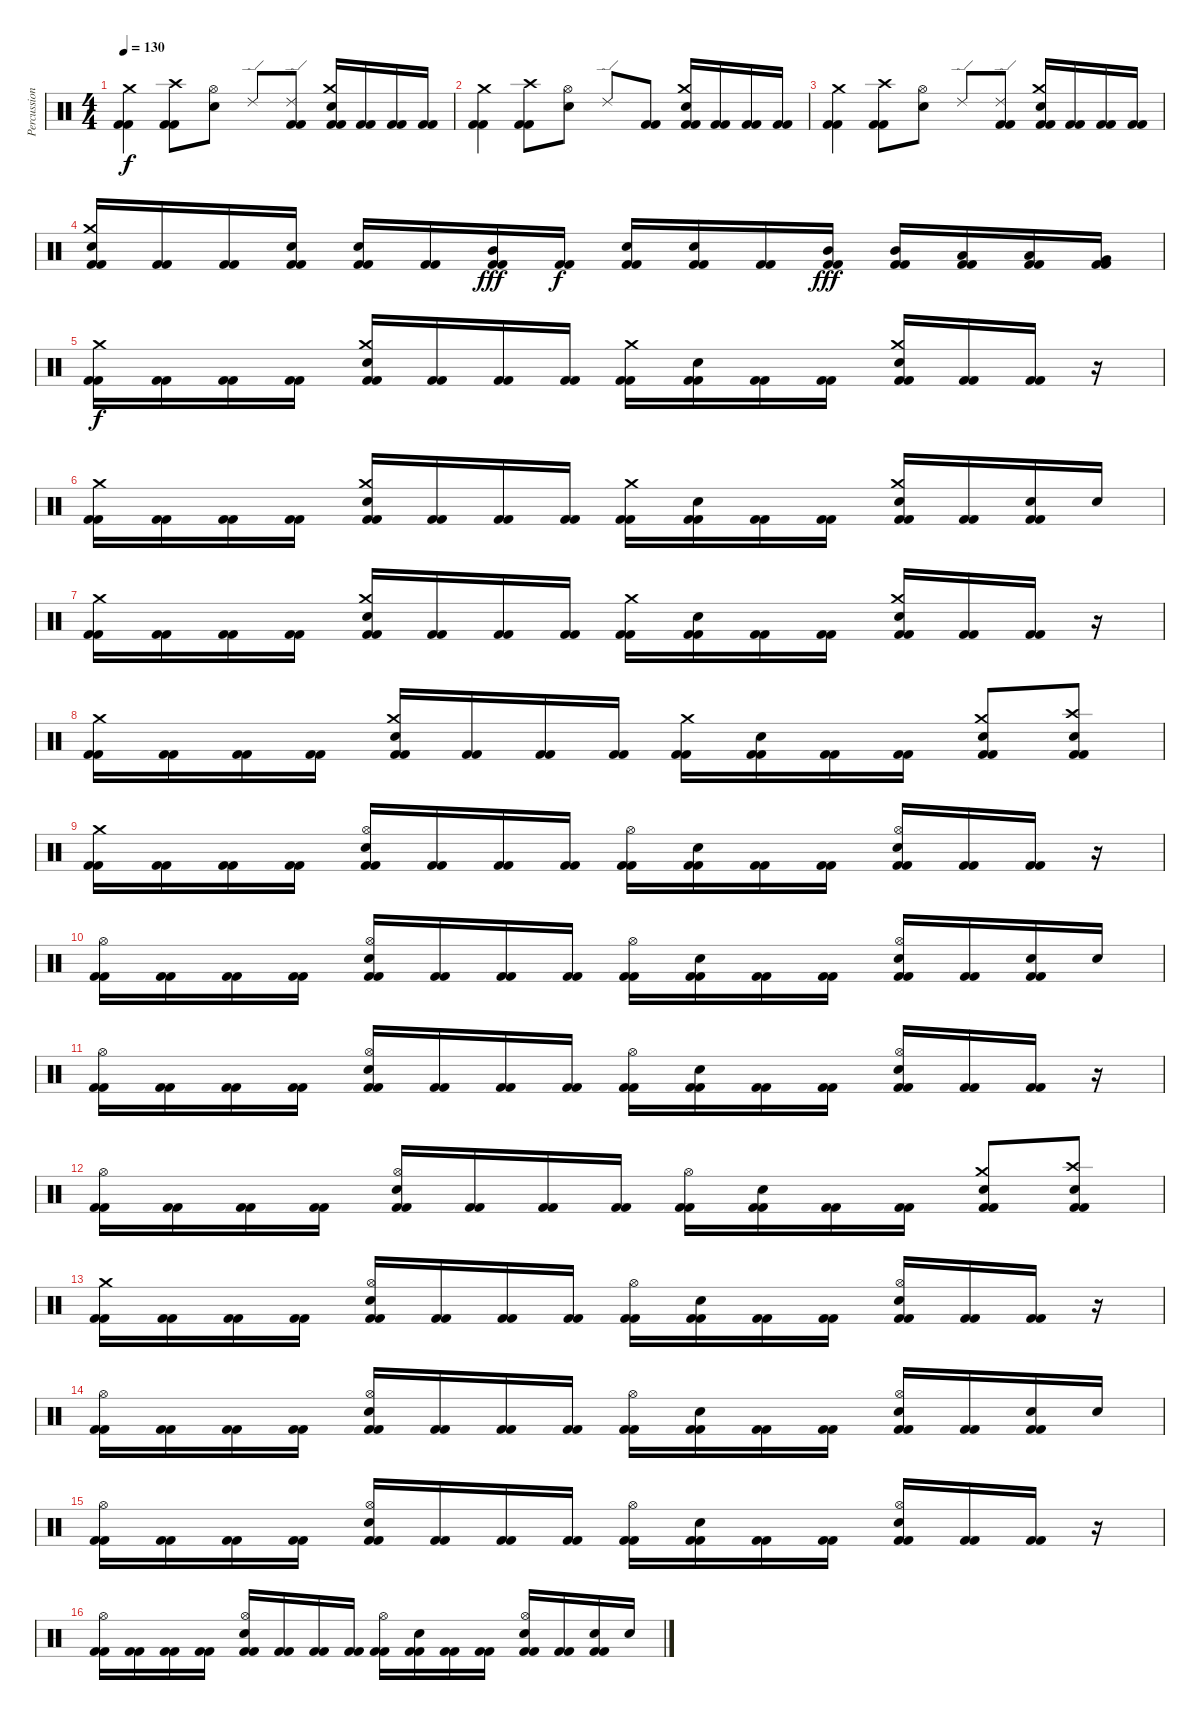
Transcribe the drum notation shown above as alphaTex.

\track ("Percussion" "Percussion") {instrument percussion}
\staff {score}
\articulation defaults
\ts (4 4)
\tempo 130
\clef neutral
\ks c
("Kick (hit) 2" "Kick (hit) 2" "Crash medium (hit)").4{dy f} ("Kick (hit) 2" "Kick (hit) 2" "Crash high (hit)").8 ("Hi-Hat (open)" "Electric Snare (hit)").8 "Ride (edge) 2".8 ("Kick (hit) 2" "Kick (hit) 2" "Ride (edge) 2").8 ("Kick (hit) 2" "Kick (hit) 2" "Electric Snare (hit)" "Crash medium (hit)").16 ("Kick (hit) 2" "Kick (hit) 2").16 ("Kick (hit) 2" "Kick (hit) 2").16 ("Kick (hit) 2" "Kick (hit) 2").16 |
("Kick (hit) 2" "Kick (hit) 2" "Crash medium (hit)").4 ("Kick (hit) 2" "Kick (hit) 2" "Crash high (hit)").8 ("Hi-Hat (open)" "Electric Snare (hit)").8 "Ride (edge) 2".8 ("Kick (hit) 2" "Kick (hit) 2").8 ("Kick (hit) 2" "Kick (hit) 2" "Electric Snare (hit)" "Crash medium (hit)").16 ("Kick (hit) 2" "Kick (hit) 2").16 ("Kick (hit) 2" "Kick (hit) 2").16 ("Kick (hit) 2" "Kick (hit) 2").16 |
("Kick (hit) 2" "Kick (hit) 2" "Crash medium (hit)").4 ("Kick (hit) 2" "Kick (hit) 2" "Crash high (hit)").8 ("Hi-Hat (open)" "Electric Snare (hit)").8 "Ride (edge) 2".8 ("Kick (hit) 2" "Kick (hit) 2" "Ride (edge) 2").8 ("Kick (hit) 2" "Kick (hit) 2" "Electric Snare (hit)" "Crash medium (hit)").16 ("Kick (hit) 2" "Kick (hit) 2").16 ("Kick (hit) 2" "Kick (hit) 2").16 ("Kick (hit) 2" "Kick (hit) 2").16 |
("Kick (hit) 2" "Kick (hit) 2" "Electric Snare (hit)" "Crash medium (hit)").16 ("Kick (hit) 2" "Kick (hit) 2").16 ("Kick (hit) 2" "Kick (hit) 2").16 ("Kick (hit) 2" "Kick (hit) 2" "Electric Snare (hit)").16 ("Kick (hit) 2" "Kick (hit) 2" "Electric Snare (hit)").16 ("Kick (hit) 2" "Kick (hit) 2").16 ("Kick (hit) 2" "Kick (hit) 2" "Mid Tom (hit)").16{dy fff} ("Kick (hit) 2" "Kick (hit) 2").16{dy f} ("Kick (hit) 2" "Kick (hit) 2" "Electric Snare (hit)").16 ("Kick (hit) 2" "Kick (hit) 2" "Electric Snare (hit)").16 ("Kick (hit) 2" "Kick (hit) 2").16 ("Kick (hit) 2" "Kick (hit) 2" "Mid Tom (hit)").16{dy fff} ("Kick (hit) 2" "Kick (hit) 2" "Mid Tom (hit)").16 ("Kick (hit) 2" "Kick (hit) 2" "Low Tom (hit)").16 ("Kick (hit) 2" "Kick (hit) 2" "Low Tom (hit)").16 ("Kick (hit) 2" "Kick (hit) 2" "Very Low Tom (hit)").16 |
("Kick (hit) 2" "Kick (hit) 2" "Crash medium (hit)").16{dy f} ("Kick (hit) 2" "Kick (hit) 2").16 ("Kick (hit) 2" "Kick (hit) 2").16 ("Kick (hit) 2" "Kick (hit) 2").16 ("Kick (hit) 2" "Kick (hit) 2" "Crash medium (hit)" "Electric Snare (hit)").16 ("Kick (hit) 2" "Kick (hit) 2").16 ("Kick (hit) 2" "Kick (hit) 2").16 ("Kick (hit) 2" "Kick (hit) 2").16 ("Kick (hit) 2" "Kick (hit) 2" "Crash medium (hit)").16 ("Kick (hit) 2" "Kick (hit) 2" "Electric Snare (hit)").16 ("Kick (hit) 2" "Kick (hit) 2").16 ("Kick (hit) 2" "Kick (hit) 2").16 ("Kick (hit) 2" "Kick (hit) 2" "Crash medium (hit)" "Electric Snare (hit)").16 ("Kick (hit) 2" "Kick (hit) 2").16 ("Kick (hit) 2" "Kick (hit) 2").16 r.16 |
("Kick (hit) 2" "Kick (hit) 2" "Crash medium (hit)").16 ("Kick (hit) 2" "Kick (hit) 2").16 ("Kick (hit) 2" "Kick (hit) 2").16 ("Kick (hit) 2" "Kick (hit) 2").16 ("Kick (hit) 2" "Kick (hit) 2" "Crash medium (hit)" "Electric Snare (hit)").16 ("Kick (hit) 2" "Kick (hit) 2").16 ("Kick (hit) 2" "Kick (hit) 2").16 ("Kick (hit) 2" "Kick (hit) 2").16 ("Kick (hit) 2" "Kick (hit) 2" "Crash medium (hit)").16 ("Kick (hit) 2" "Kick (hit) 2" "Electric Snare (hit)").16 ("Kick (hit) 2" "Kick (hit) 2").16 ("Kick (hit) 2" "Kick (hit) 2").16 ("Kick (hit) 2" "Kick (hit) 2" "Crash medium (hit)" "Electric Snare (hit)").16 ("Kick (hit) 2" "Kick (hit) 2").16 ("Kick (hit) 2" "Kick (hit) 2" "Electric Snare (hit)").16 "Electric Snare (hit)".16 |
("Kick (hit) 2" "Kick (hit) 2" "Crash medium (hit)").16 ("Kick (hit) 2" "Kick (hit) 2").16 ("Kick (hit) 2" "Kick (hit) 2").16 ("Kick (hit) 2" "Kick (hit) 2").16 ("Kick (hit) 2" "Kick (hit) 2" "Crash medium (hit)" "Electric Snare (hit)").16 ("Kick (hit) 2" "Kick (hit) 2").16 ("Kick (hit) 2" "Kick (hit) 2").16 ("Kick (hit) 2" "Kick (hit) 2").16 ("Kick (hit) 2" "Kick (hit) 2" "Crash medium (hit)").16 ("Kick (hit) 2" "Kick (hit) 2" "Electric Snare (hit)").16 ("Kick (hit) 2" "Kick (hit) 2").16 ("Kick (hit) 2" "Kick (hit) 2").16 ("Kick (hit) 2" "Kick (hit) 2" "Crash medium (hit)" "Electric Snare (hit)").16 ("Kick (hit) 2" "Kick (hit) 2").16 ("Kick (hit) 2" "Kick (hit) 2").16 r.16 |
("Kick (hit) 2" "Kick (hit) 2" "Crash medium (hit)").16 ("Kick (hit) 2" "Kick (hit) 2").16 ("Kick (hit) 2" "Kick (hit) 2").16 ("Kick (hit) 2" "Kick (hit) 2").16 ("Kick (hit) 2" "Kick (hit) 2" "Crash medium (hit)" "Electric Snare (hit)").16 ("Kick (hit) 2" "Kick (hit) 2").16 ("Kick (hit) 2" "Kick (hit) 2").16 ("Kick (hit) 2" "Kick (hit) 2").16 ("Kick (hit) 2" "Kick (hit) 2" "Crash medium (hit)").16 ("Kick (hit) 2" "Kick (hit) 2" "Electric Snare (hit)").16 ("Kick (hit) 2" "Kick (hit) 2").16 ("Kick (hit) 2" "Kick (hit) 2").16 ("Kick (hit) 2" "Kick (hit) 2" "Crash medium (hit)" "Electric Snare (hit)").8 ("Kick (hit) 2" "Kick (hit) 2" "Crash high (hit)" "Electric Snare (hit)").8 |
("Kick (hit) 2" "Kick (hit) 2" "Crash medium (hit)").16 ("Kick (hit) 2" "Kick (hit) 2").16 ("Kick (hit) 2" "Kick (hit) 2").16 ("Kick (hit) 2" "Kick (hit) 2").16 ("Kick (hit) 2" "Kick (hit) 2" "Hi-Hat (open)" "Electric Snare (hit)").16 ("Kick (hit) 2" "Kick (hit) 2").16 ("Kick (hit) 2" "Kick (hit) 2").16 ("Kick (hit) 2" "Kick (hit) 2").16 ("Kick (hit) 2" "Kick (hit) 2" "Hi-Hat (open)").16 ("Kick (hit) 2" "Kick (hit) 2" "Electric Snare (hit)").16 ("Kick (hit) 2" "Kick (hit) 2").16 ("Kick (hit) 2" "Kick (hit) 2").16 ("Kick (hit) 2" "Kick (hit) 2" "Hi-Hat (open)" "Electric Snare (hit)").16 ("Kick (hit) 2" "Kick (hit) 2").16 ("Kick (hit) 2" "Kick (hit) 2").16 r.16 |
("Kick (hit) 2" "Kick (hit) 2" "Hi-Hat (open)").16 ("Kick (hit) 2" "Kick (hit) 2").16 ("Kick (hit) 2" "Kick (hit) 2").16 ("Kick (hit) 2" "Kick (hit) 2").16 ("Kick (hit) 2" "Kick (hit) 2" "Hi-Hat (open)" "Electric Snare (hit)").16 ("Kick (hit) 2" "Kick (hit) 2").16 ("Kick (hit) 2" "Kick (hit) 2").16 ("Kick (hit) 2" "Kick (hit) 2").16 ("Kick (hit) 2" "Kick (hit) 2" "Hi-Hat (open)").16 ("Kick (hit) 2" "Kick (hit) 2" "Electric Snare (hit)").16 ("Kick (hit) 2" "Kick (hit) 2").16 ("Kick (hit) 2" "Kick (hit) 2").16 ("Kick (hit) 2" "Kick (hit) 2" "Hi-Hat (open)" "Electric Snare (hit)").16 ("Kick (hit) 2" "Kick (hit) 2").16 ("Kick (hit) 2" "Kick (hit) 2" "Electric Snare (hit)").16 "Electric Snare (hit)".16 |
("Kick (hit) 2" "Kick (hit) 2" "Hi-Hat (open)").16 ("Kick (hit) 2" "Kick (hit) 2").16 ("Kick (hit) 2" "Kick (hit) 2").16 ("Kick (hit) 2" "Kick (hit) 2").16 ("Kick (hit) 2" "Kick (hit) 2" "Hi-Hat (open)" "Electric Snare (hit)").16 ("Kick (hit) 2" "Kick (hit) 2").16 ("Kick (hit) 2" "Kick (hit) 2").16 ("Kick (hit) 2" "Kick (hit) 2").16 ("Kick (hit) 2" "Kick (hit) 2" "Hi-Hat (open)").16 ("Kick (hit) 2" "Kick (hit) 2" "Electric Snare (hit)").16 ("Kick (hit) 2" "Kick (hit) 2").16 ("Kick (hit) 2" "Kick (hit) 2").16 ("Kick (hit) 2" "Kick (hit) 2" "Hi-Hat (open)" "Electric Snare (hit)").16 ("Kick (hit) 2" "Kick (hit) 2").16 ("Kick (hit) 2" "Kick (hit) 2").16 r.16 |
("Kick (hit) 2" "Kick (hit) 2" "Hi-Hat (open)").16 ("Kick (hit) 2" "Kick (hit) 2").16 ("Kick (hit) 2" "Kick (hit) 2").16 ("Kick (hit) 2" "Kick (hit) 2").16 ("Kick (hit) 2" "Kick (hit) 2" "Hi-Hat (open)" "Electric Snare (hit)").16 ("Kick (hit) 2" "Kick (hit) 2").16 ("Kick (hit) 2" "Kick (hit) 2").16 ("Kick (hit) 2" "Kick (hit) 2").16 ("Kick (hit) 2" "Kick (hit) 2" "Hi-Hat (open)").16 ("Kick (hit) 2" "Kick (hit) 2" "Electric Snare (hit)").16 ("Kick (hit) 2" "Kick (hit) 2").16 ("Kick (hit) 2" "Kick (hit) 2").16 ("Kick (hit) 2" "Kick (hit) 2" "Crash medium (hit)" "Electric Snare (hit)").8 ("Kick (hit) 2" "Kick (hit) 2" "Crash high (hit)" "Electric Snare (hit)").8 |
("Kick (hit) 2" "Kick (hit) 2" "Crash medium (hit)").16 ("Kick (hit) 2" "Kick (hit) 2").16 ("Kick (hit) 2" "Kick (hit) 2").16 ("Kick (hit) 2" "Kick (hit) 2").16 ("Kick (hit) 2" "Kick (hit) 2" "Hi-Hat (open)" "Electric Snare (hit)").16 ("Kick (hit) 2" "Kick (hit) 2").16 ("Kick (hit) 2" "Kick (hit) 2").16 ("Kick (hit) 2" "Kick (hit) 2").16 ("Kick (hit) 2" "Kick (hit) 2" "Hi-Hat (open)").16 ("Kick (hit) 2" "Kick (hit) 2" "Electric Snare (hit)").16 ("Kick (hit) 2" "Kick (hit) 2").16 ("Kick (hit) 2" "Kick (hit) 2").16 ("Kick (hit) 2" "Kick (hit) 2" "Hi-Hat (open)" "Electric Snare (hit)").16 ("Kick (hit) 2" "Kick (hit) 2").16 ("Kick (hit) 2" "Kick (hit) 2").16 r.16 |
("Kick (hit) 2" "Kick (hit) 2" "Hi-Hat (open)").16 ("Kick (hit) 2" "Kick (hit) 2").16 ("Kick (hit) 2" "Kick (hit) 2").16 ("Kick (hit) 2" "Kick (hit) 2").16 ("Kick (hit) 2" "Kick (hit) 2" "Hi-Hat (open)" "Electric Snare (hit)").16 ("Kick (hit) 2" "Kick (hit) 2").16 ("Kick (hit) 2" "Kick (hit) 2").16 ("Kick (hit) 2" "Kick (hit) 2").16 ("Kick (hit) 2" "Kick (hit) 2" "Hi-Hat (open)").16 ("Kick (hit) 2" "Kick (hit) 2" "Electric Snare (hit)").16 ("Kick (hit) 2" "Kick (hit) 2").16 ("Kick (hit) 2" "Kick (hit) 2").16 ("Kick (hit) 2" "Kick (hit) 2" "Hi-Hat (open)" "Electric Snare (hit)").16 ("Kick (hit) 2" "Kick (hit) 2").16 ("Kick (hit) 2" "Kick (hit) 2" "Electric Snare (hit)").16 "Electric Snare (hit)".16 |
("Kick (hit) 2" "Kick (hit) 2" "Hi-Hat (open)").16 ("Kick (hit) 2" "Kick (hit) 2").16 ("Kick (hit) 2" "Kick (hit) 2").16 ("Kick (hit) 2" "Kick (hit) 2").16 ("Kick (hit) 2" "Kick (hit) 2" "Hi-Hat (open)" "Electric Snare (hit)").16 ("Kick (hit) 2" "Kick (hit) 2").16 ("Kick (hit) 2" "Kick (hit) 2").16 ("Kick (hit) 2" "Kick (hit) 2").16 ("Kick (hit) 2" "Kick (hit) 2" "Hi-Hat (open)").16 ("Kick (hit) 2" "Kick (hit) 2" "Electric Snare (hit)").16 ("Kick (hit) 2" "Kick (hit) 2").16 ("Kick (hit) 2" "Kick (hit) 2").16 ("Kick (hit) 2" "Kick (hit) 2" "Hi-Hat (open)" "Electric Snare (hit)").16 ("Kick (hit) 2" "Kick (hit) 2").16 ("Kick (hit) 2" "Kick (hit) 2").16 r.16 |
("Kick (hit) 2" "Kick (hit) 2" "Hi-Hat (open)").16 ("Kick (hit) 2" "Kick (hit) 2").16 ("Kick (hit) 2" "Kick (hit) 2").16 ("Kick (hit) 2" "Kick (hit) 2").16 ("Kick (hit) 2" "Kick (hit) 2" "Hi-Hat (open)" "Electric Snare (hit)").16 ("Kick (hit) 2" "Kick (hit) 2").16 ("Kick (hit) 2" "Kick (hit) 2").16 ("Kick (hit) 2" "Kick (hit) 2").16 ("Kick (hit) 2" "Kick (hit) 2" "Hi-Hat (open)").16 ("Kick (hit) 2" "Kick (hit) 2" "Electric Snare (hit)").16 ("Kick (hit) 2" "Kick (hit) 2").16 ("Kick (hit) 2" "Kick (hit) 2").16 ("Kick (hit) 2" "Kick (hit) 2" "Hi-Hat (open)" "Electric Snare (hit)").16 ("Kick (hit) 2" "Kick (hit) 2").16 ("Kick (hit) 2" "Kick (hit) 2" "Electric Snare (hit)").16 "Electric Snare (hit)".16
